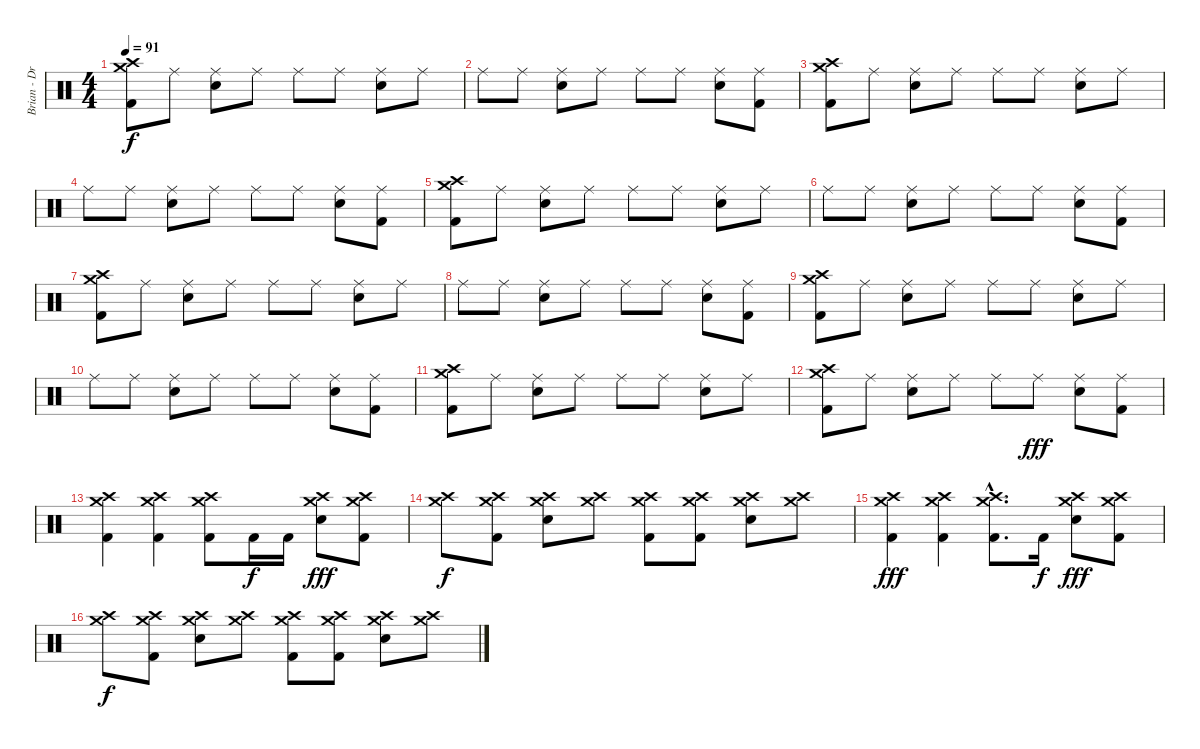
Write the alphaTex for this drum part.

\track ("Brian - Drums" "Brian - Dr") {instrument percussion}
\staff {score}
\articulation defaults
\ts (4 4)
\tempo 91
\clef neutral
\ks c
("Crash medium (hit)" "Crash high (hit)" "Kick (hit) 2").8{dy f} "Ride (middle)".8 ("Ride (middle)" "Snare (hit) 2").8 "Ride (middle)".8 "Ride (middle)".8 "Ride (middle)".8 ("Ride (middle)" "Snare (hit) 2").8 "Ride (middle)".8 |
"Ride (middle)".8 "Ride (middle)".8 ("Ride (middle)" "Snare (hit) 2").8 "Ride (middle)".8 "Ride (middle)".8 "Ride (middle)".8 ("Ride (middle)" "Snare (hit) 2").8 ("Ride (middle)" "Kick (hit) 2").8 |
("Crash medium (hit)" "Crash high (hit)" "Kick (hit) 2").8 "Ride (middle)".8 ("Ride (middle)" "Snare (hit) 2").8 "Ride (middle)".8 "Ride (middle)".8 "Ride (middle)".8 ("Ride (middle)" "Snare (hit) 2").8 "Ride (middle)".8 |
"Ride (middle)".8 "Ride (middle)".8 ("Ride (middle)" "Snare (hit) 2").8 "Ride (middle)".8 "Ride (middle)".8 "Ride (middle)".8 ("Ride (middle)" "Snare (hit) 2").8 ("Ride (middle)" "Kick (hit) 2").8 |
("Crash medium (hit)" "Crash high (hit)" "Kick (hit) 2").8 "Ride (middle)".8 ("Ride (middle)" "Snare (hit) 2").8 "Ride (middle)".8 "Ride (middle)".8 "Ride (middle)".8 ("Ride (middle)" "Snare (hit) 2").8 "Ride (middle)".8 |
"Ride (middle)".8 "Ride (middle)".8 ("Ride (middle)" "Snare (hit) 2").8 "Ride (middle)".8 "Ride (middle)".8 "Ride (middle)".8 ("Ride (middle)" "Snare (hit) 2").8 ("Ride (middle)" "Kick (hit) 2").8 |
("Crash medium (hit)" "Crash high (hit)" "Kick (hit) 2").8 "Ride (middle)".8 ("Ride (middle)" "Snare (hit) 2").8 "Ride (middle)".8 "Ride (middle)".8 "Ride (middle)".8 ("Ride (middle)" "Snare (hit) 2").8 "Ride (middle)".8 |
"Ride (middle)".8 "Ride (middle)".8 ("Ride (middle)" "Snare (hit) 2").8 "Ride (middle)".8 "Ride (middle)".8 "Ride (middle)".8 ("Ride (middle)" "Snare (hit) 2").8 ("Ride (middle)" "Kick (hit) 2").8 |
("Crash medium (hit)" "Crash high (hit)" "Kick (hit) 2").8 "Ride (middle)".8 ("Ride (middle)" "Snare (hit) 2").8 "Ride (middle)".8 "Ride (middle)".8 "Ride (middle)".8 ("Ride (middle)" "Snare (hit) 2").8 "Ride (middle)".8 |
"Ride (middle)".8 "Ride (middle)".8 ("Ride (middle)" "Snare (hit) 2").8 "Ride (middle)".8 "Ride (middle)".8 "Ride (middle)".8 ("Ride (middle)" "Snare (hit) 2").8 ("Ride (middle)" "Kick (hit) 2").8 |
("Crash medium (hit)" "Crash high (hit)" "Kick (hit) 2").8 "Ride (middle)".8 ("Ride (middle)" "Snare (hit) 2").8 "Ride (middle)".8 "Ride (middle)".8 "Ride (middle)".8 ("Ride (middle)" "Snare (hit) 2").8 "Ride (middle)".8 |
("Crash medium (hit)" "Crash high (hit)" "Kick (hit) 2").8 "Ride (middle)".8 ("Ride (middle)" "Snare (hit) 2").8 "Ride (middle)".8 "Ride (middle)".8 "Ride (middle)".8{dy fff} ("Ride (middle)" "Snare (hit) 2").8 ("Ride (middle)" "Kick (hit) 2").8 |
("Crash medium (hit)" "Crash high (hit)" "Kick (hit) 2").4 ("Crash medium (hit)" "Crash high (hit)" "Kick (hit) 2").4 ("Crash medium (hit)" "Crash high (hit)" "Kick (hit) 2").8 "Kick (hit) 2".16{dy f} "Kick (hit) 2".16 ("Crash medium (hit)" "Crash high (hit)" "Snare (hit) 2").8{dy fff} ("Crash medium (hit)" "Crash high (hit)" "Kick (hit) 2").8 |
("Crash medium (hit)" "Crash high (hit)").8{dy f} ("Crash medium (hit)" "Crash high (hit)" "Kick (hit) 2").8 ("Crash medium (hit)" "Crash high (hit)" "Snare (hit) 2").8 ("Crash medium (hit)" "Crash high (hit)").8 ("Crash medium (hit)" "Crash high (hit)" "Kick (hit) 2").8 ("Crash medium (hit)" "Crash high (hit)" "Kick (hit) 2").8 ("Crash medium (hit)" "Crash high (hit)" "Snare (hit) 2").8 ("Crash medium (hit)" "Crash high (hit)").8 |
("Crash medium (hit)" "Crash high (hit)" "Kick (hit) 2").4{dy fff} ("Crash medium (hit)" "Crash high (hit)" "Kick (hit) 2").4 ("Crash medium (hit)"{hac} "Crash high (hit)"{hac} "Kick (hit) 2"{hac}).8{d} "Kick (hit) 2".16{dy f} ("Crash medium (hit)" "Crash high (hit)" "Snare (hit) 2").8{dy fff} ("Crash medium (hit)" "Crash high (hit)" "Kick (hit) 2").8 |
("Crash medium (hit)" "Crash high (hit)").8{dy f} ("Crash medium (hit)" "Crash high (hit)" "Kick (hit) 2").8 ("Crash medium (hit)" "Crash high (hit)" "Snare (hit) 2").8 ("Crash medium (hit)" "Crash high (hit)").8 ("Crash medium (hit)" "Crash high (hit)" "Kick (hit) 2").8 ("Crash medium (hit)" "Crash high (hit)" "Kick (hit) 2").8 ("Crash medium (hit)" "Crash high (hit)" "Snare (hit) 2").8 ("Crash medium (hit)" "Crash high (hit)").8
